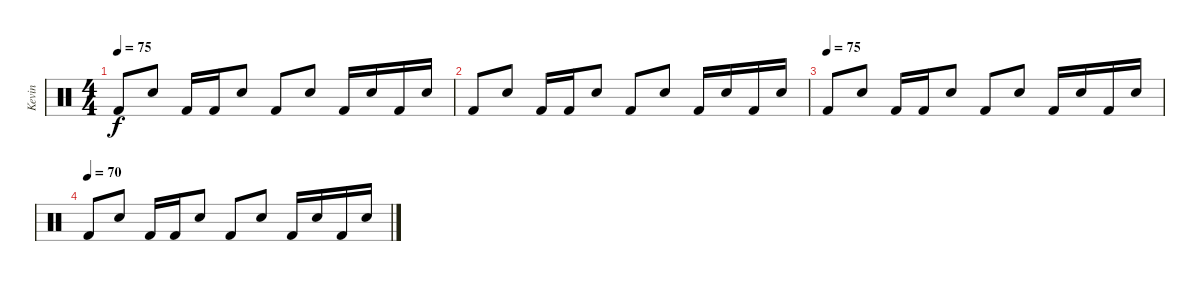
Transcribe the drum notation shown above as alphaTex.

\track ("Kevin" "Kevin") {instrument percussion}
\staff {score}
\articulation defaults
\ts (4 4)
\tempo 75
\clef neutral
\ks c "Kick (hit) 2".8{dy f} "Snare (hit) 2".8 "Kick (hit) 2".16 "Kick (hit) 2".16 "Snare (hit) 2".8 "Kick (hit) 2".8 "Snare (hit) 2".8 "Kick (hit) 2".16 "Snare (hit) 2".16 "Kick (hit) 2".16 "Snare (hit) 2".16
|
"Kick (hit) 2".8 "Snare (hit) 2".8 "Kick (hit) 2".16 "Kick (hit) 2".16 "Snare (hit) 2".8 "Kick (hit) 2".8 "Snare (hit) 2".8 "Kick (hit) 2".16 "Snare (hit) 2".16 "Kick (hit) 2".16 "Snare (hit) 2".16 |
\tempo (75)
"Kick (hit) 2".8 "Snare (hit) 2".8 "Kick (hit) 2".16 "Kick (hit) 2".16 "Snare (hit) 2".8 "Kick (hit) 2".8 "Snare (hit) 2".8 "Kick (hit) 2".16 "Snare (hit) 2".16 "Kick (hit) 2".16 "Snare (hit) 2".16 |
\tempo (70)
"Kick (hit) 2".8 "Snare (hit) 2".8 "Kick (hit) 2".16 "Kick (hit) 2".16 "Snare (hit) 2".8 "Kick (hit) 2".8 "Snare (hit) 2".8 "Kick (hit) 2".16 "Snare (hit) 2".16 "Kick (hit) 2".16 "Snare (hit) 2".16
